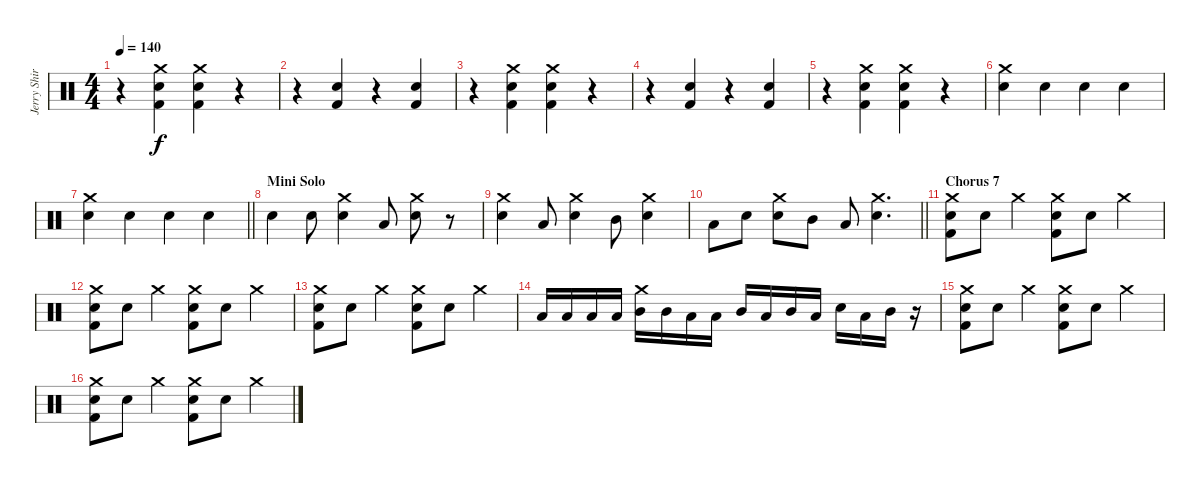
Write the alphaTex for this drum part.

\track ("Jerry Shirley (Drums)" "Jerry Shir") {instrument percussion bank 255}
\staff {score}
\articulation defaults
\ts (4 4)
\tempo 140
\clef neutral
\ks c
r.4{dy f} ("Kick (hit) 2" "Electric Snare (hit)" "Crash medium (hit)").4{volume 16} ("Kick (hit) 2" "Electric Snare (hit)" "Crash medium (hit)").4 r.4 |
r.4 ("Electric Snare (hit)" "Kick (hit) 2").4{volume 7} r.4 ("Electric Snare (hit)" "Kick (hit) 2").4 |
r.4 ("Kick (hit) 2" "Electric Snare (hit)" "Crash medium (hit)").4{volume 16} ("Kick (hit) 2" "Electric Snare (hit)" "Crash medium (hit)").4 r.4 |
r.4 ("Electric Snare (hit)" "Kick (hit) 2").4{volume 7} r.4 ("Electric Snare (hit)" "Kick (hit) 2").4 |
r.4 ("Kick (hit) 2" "Electric Snare (hit)" "Crash medium (hit)").4{volume 16} ("Kick (hit) 2" "Electric Snare (hit)" "Crash medium (hit)").4 r.4 |
("Electric Snare (hit)" "Crash medium (hit)").4 "Electric Snare (hit)".4 "Electric Snare (hit)".4 "Electric Snare (hit)".4 |
\barLineRight lightlight
("Electric Snare (hit)" "Crash medium (hit)").4 "Electric Snare (hit)".4 "Electric Snare (hit)".4 "Electric Snare (hit)".4 |
\section ("" "Mini Solo")
"Electric Snare (hit)".4 "Electric Snare (hit)".8 ("Electric Snare (hit)" "Crash medium (hit)").4 "Low Tom (hit)".8 ("Electric Snare (hit)" "Crash medium (hit)").8 r.8 |
("Electric Snare (hit)" "Crash medium (hit)").4 "Low Tom (hit)".8 ("Electric Snare (hit)" "Crash medium (hit)").4 "Mid Tom (hit)".8 ("Electric Snare (hit)" "Crash medium (hit)").4 |
\barLineRight lightlight "Low Tom (hit)".8 "Electric Snare (hit)".8
("Electric Snare (hit)" "Crash medium (hit)").8 "Mid Tom (hit)".8 "Low Tom (hit)".8 ("Electric Snare (hit)" "Crash medium (hit)").4{d} |
\section ("" "Chorus 7")
("Electric Snare (hit)" "Kick (hit) 2" "Crash medium (hit)").8 "Electric Snare (hit)".8 "Crash medium (hit)".4 ("Electric Snare (hit)" "Kick (hit) 2" "Crash medium (hit)").8 "Electric Snare (hit)".8 "Crash medium (hit)".4 |
("Electric Snare (hit)" "Kick (hit) 2" "Crash medium (hit)").8 "Electric Snare (hit)".8 "Crash medium (hit)".4 ("Electric Snare (hit)" "Kick (hit) 2" "Crash medium (hit)").8 "Electric Snare (hit)".8 "Crash medium (hit)".4 |
("Electric Snare (hit)" "Kick (hit) 2" "Crash medium (hit)").8 "Electric Snare (hit)".8 "Crash medium (hit)".4 ("Electric Snare (hit)" "Kick (hit) 2" "Crash medium (hit)").8 "Electric Snare (hit)".8 "Crash medium (hit)".4 |
"Low Tom (hit)".16 "Low Tom (hit)".16 "Low Tom (hit)".16 "Low Tom (hit)".16 ("Mid Tom (hit)" "Crash medium (hit)").16 "Mid Tom (hit)".16 "Low Tom (hit)".16 "Low Tom (hit)".16 "Mid Tom (hit)".16 "Low Tom (hit)".16 "Mid Tom (hit)".16 "Low Tom (hit)".16 "Electric Snare (hit)".16 "Low Tom (hit)".16 "Mid Tom (hit)".16 r.16 |
("Electric Snare (hit)" "Kick (hit) 2" "Crash medium (hit)").8 "Electric Snare (hit)".8 "Crash medium (hit)".4 ("Electric Snare (hit)" "Kick (hit) 2" "Crash medium (hit)").8 "Electric Snare (hit)".8 "Crash medium (hit)".4 |
("Electric Snare (hit)" "Kick (hit) 2" "Crash medium (hit)").8 "Electric Snare (hit)".8 "Crash medium (hit)".4 ("Electric Snare (hit)" "Kick (hit) 2" "Crash medium (hit)").8 "Electric Snare (hit)".8 "Crash medium (hit)".4
